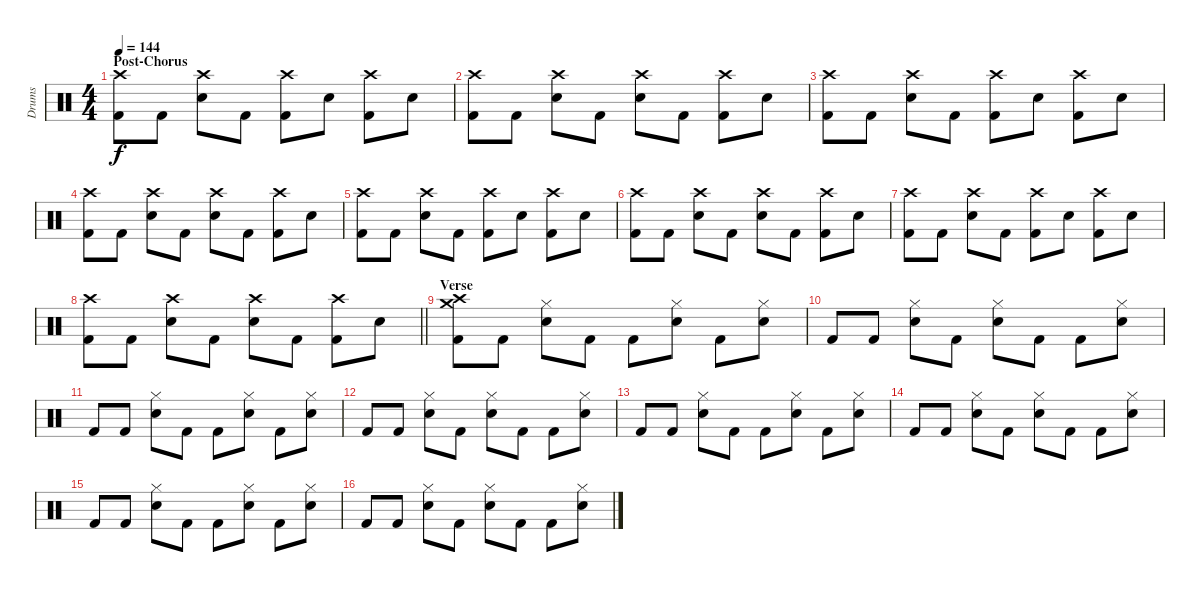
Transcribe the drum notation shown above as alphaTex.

\track ("Drums" "Drums") {instrument percussion}
\staff {score}
\articulation defaults
\ts (4 4)
\section ("" "Post-Chorus")
\tempo 144
\clef neutral
\ks c
("Crash high (hit)" "Kick (hit) 2").8{dy f} "Kick (hit) 2".8 ("Crash high (hit)" "Electric Snare (hit)").8 "Kick (hit) 2".8 ("Crash high (hit)" "Kick (hit) 2").8 "Electric Snare (hit)".8 ("Crash high (hit)" "Kick (hit) 2").8 "Electric Snare (hit)".8 |
("Crash high (hit)" "Kick (hit) 2").8 "Kick (hit) 2".8 ("Crash high (hit)" "Electric Snare (hit)").8 "Kick (hit) 2".8 ("Crash high (hit)" "Electric Snare (hit)").8 "Kick (hit) 2".8 ("Crash high (hit)" "Kick (hit) 2").8 "Electric Snare (hit)".8 |
("Crash high (hit)" "Kick (hit) 2").8 "Kick (hit) 2".8 ("Crash high (hit)" "Electric Snare (hit)").8 "Kick (hit) 2".8 ("Crash high (hit)" "Kick (hit) 2").8 "Electric Snare (hit)".8 ("Crash high (hit)" "Kick (hit) 2").8 "Electric Snare (hit)".8 |
("Crash high (hit)" "Kick (hit) 2").8 "Kick (hit) 2".8 ("Crash high (hit)" "Electric Snare (hit)").8 "Kick (hit) 2".8 ("Crash high (hit)" "Electric Snare (hit)").8 "Kick (hit) 2".8 ("Crash high (hit)" "Kick (hit) 2").8 "Electric Snare (hit)".8 |
("Crash high (hit)" "Kick (hit) 2").8 "Kick (hit) 2".8 ("Crash high (hit)" "Electric Snare (hit)").8 "Kick (hit) 2".8 ("Crash high (hit)" "Kick (hit) 2").8 "Electric Snare (hit)".8 ("Crash high (hit)" "Kick (hit) 2").8 "Electric Snare (hit)".8 |
("Crash high (hit)" "Kick (hit) 2").8 "Kick (hit) 2".8 ("Crash high (hit)" "Electric Snare (hit)").8 "Kick (hit) 2".8 ("Crash high (hit)" "Electric Snare (hit)").8 "Kick (hit) 2".8 ("Crash high (hit)" "Kick (hit) 2").8 "Electric Snare (hit)".8 |
("Crash high (hit)" "Kick (hit) 2").8 "Kick (hit) 2".8 ("Crash high (hit)" "Electric Snare (hit)").8 "Kick (hit) 2".8 ("Crash high (hit)" "Kick (hit) 2").8 "Electric Snare (hit)".8 ("Crash high (hit)" "Kick (hit) 2").8 "Electric Snare (hit)".8 |
\barLineRight lightlight
("Crash high (hit)" "Kick (hit) 2").8 "Kick (hit) 2".8 ("Crash high (hit)" "Electric Snare (hit)").8 "Kick (hit) 2".8 ("Crash high (hit)" "Electric Snare (hit)").8 "Kick (hit) 2".8 ("Crash high (hit)" "Kick (hit) 2").8 "Electric Snare (hit)".8 |
\section ("" "Verse")
("Crash medium (hit)" "Crash high (hit)" "Kick (hit) 2").8 "Kick (hit) 2".8 ("Hi-Hat (closed)" "Electric Snare (hit)").8 "Kick (hit) 2".8 "Kick (hit) 2".8 ("Hi-Hat (closed)" "Electric Snare (hit)").8 "Kick (hit) 2".8 ("Hi-Hat (closed)" "Electric Snare (hit)").8 |
"Kick (hit) 2".8 "Kick (hit) 2".8 ("Hi-Hat (closed)" "Electric Snare (hit)").8 "Kick (hit) 2".8 ("Hi-Hat (closed)" "Electric Snare (hit)").8 "Kick (hit) 2".8 "Kick (hit) 2".8 ("Hi-Hat (closed)" "Electric Snare (hit)").8 |
"Kick (hit) 2".8 "Kick (hit) 2".8 ("Hi-Hat (closed)" "Electric Snare (hit)").8 "Kick (hit) 2".8 "Kick (hit) 2".8 ("Hi-Hat (closed)" "Electric Snare (hit)").8 "Kick (hit) 2".8 ("Hi-Hat (closed)" "Electric Snare (hit)").8 |
"Kick (hit) 2".8 "Kick (hit) 2".8 ("Hi-Hat (closed)" "Electric Snare (hit)").8 "Kick (hit) 2".8 ("Hi-Hat (closed)" "Electric Snare (hit)").8 "Kick (hit) 2".8 "Kick (hit) 2".8 ("Hi-Hat (closed)" "Electric Snare (hit)").8 |
"Kick (hit) 2".8 "Kick (hit) 2".8 ("Hi-Hat (closed)" "Electric Snare (hit)").8 "Kick (hit) 2".8 "Kick (hit) 2".8 ("Hi-Hat (closed)" "Electric Snare (hit)").8 "Kick (hit) 2".8 ("Hi-Hat (closed)" "Electric Snare (hit)").8 |
"Kick (hit) 2".8 "Kick (hit) 2".8 ("Hi-Hat (closed)" "Electric Snare (hit)").8 "Kick (hit) 2".8 ("Hi-Hat (closed)" "Electric Snare (hit)").8 "Kick (hit) 2".8 "Kick (hit) 2".8 ("Hi-Hat (closed)" "Electric Snare (hit)").8 |
"Kick (hit) 2".8 "Kick (hit) 2".8 ("Hi-Hat (closed)" "Electric Snare (hit)").8 "Kick (hit) 2".8 "Kick (hit) 2".8 ("Hi-Hat (closed)" "Electric Snare (hit)").8 "Kick (hit) 2".8 ("Hi-Hat (closed)" "Electric Snare (hit)").8 |
"Kick (hit) 2".8 "Kick (hit) 2".8 ("Hi-Hat (closed)" "Electric Snare (hit)").8 "Kick (hit) 2".8 ("Hi-Hat (closed)" "Electric Snare (hit)").8 "Kick (hit) 2".8 "Kick (hit) 2".8 ("Hi-Hat (closed)" "Electric Snare (hit)").8
